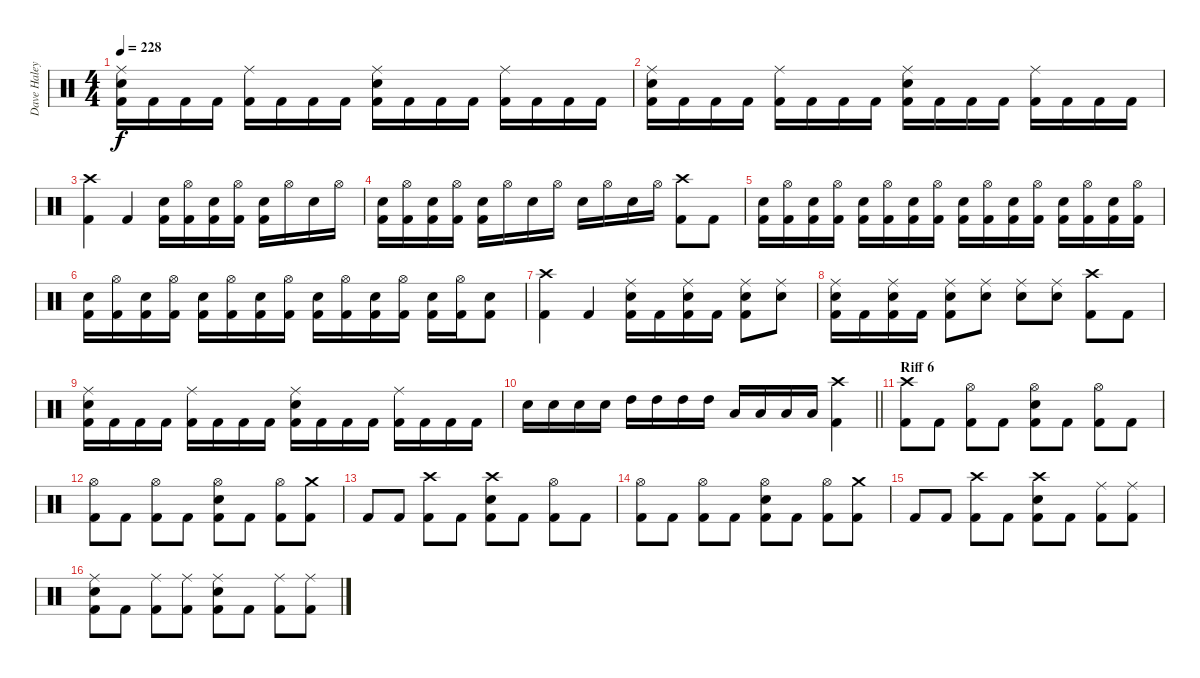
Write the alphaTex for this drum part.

\track ("Dave Haley" "Dave Haley") {instrument percussion}
\staff {score}
\articulation defaults
\ts (4 4)
\tempo 228
\clef neutral
\ks c
("Ride (middle)" "Snare (hit) 2" "Kick (hit) 2").16{dy f} "Kick (hit) 2".16 "Kick (hit) 2".16 "Kick (hit) 2".16 ("Ride (middle)" "Kick (hit) 2").16 "Kick (hit) 2".16 "Kick (hit) 2".16 "Kick (hit) 2".16 ("Ride (middle)" "Snare (hit) 2" "Kick (hit) 2").16 "Kick (hit) 2".16 "Kick (hit) 2".16 "Kick (hit) 2".16 ("Ride (middle)" "Kick (hit) 2").16 "Kick (hit) 2".16 "Kick (hit) 2".16 "Kick (hit) 2".16 |
("Ride (middle)" "Snare (hit) 2" "Kick (hit) 2").16 "Kick (hit) 2".16 "Kick (hit) 2".16 "Kick (hit) 2".16 ("Ride (middle)" "Kick (hit) 2").16 "Kick (hit) 2".16 "Kick (hit) 2".16 "Kick (hit) 2".16 ("Ride (middle)" "Snare (hit) 2" "Kick (hit) 2").16 "Kick (hit) 2".16 "Kick (hit) 2".16 "Kick (hit) 2".16 ("Ride (middle)" "Kick (hit) 2").16 "Kick (hit) 2".16 "Kick (hit) 2".16 "Kick (hit) 2".16 |
("Crash high (hit)" "Kick (hit) 2").4 "Kick (hit) 2".4 ("Snare (hit) 2" "Kick (hit) 2").16 ("Hi-Hat (open)" "Kick (hit) 2").16 ("Snare (hit) 2" "Kick (hit) 2").16 ("Hi-Hat (open)" "Kick (hit) 2").16 ("Snare (hit) 2" "Kick (hit) 2").16 "Hi-Hat (open)".16 "Snare (hit) 2".16 "Hi-Hat (open)".16 |
("Snare (hit) 2" "Kick (hit) 2").16 ("Hi-Hat (open)" "Kick (hit) 2").16 ("Snare (hit) 2" "Kick (hit) 2").16 ("Hi-Hat (open)" "Kick (hit) 2").16 ("Snare (hit) 2" "Kick (hit) 2").16 "Hi-Hat (open)".16 "Snare (hit) 2".16 "Hi-Hat (open)".16 "Snare (hit) 2".16 "Hi-Hat (open)".16 "Snare (hit) 2".16 "Hi-Hat (open)".16 ("Crash high (hit)" "Kick (hit) 2").8 "Kick (hit) 2".8 |
("Snare (hit) 2" "Kick (hit) 2").16 ("Hi-Hat (open)" "Kick (hit) 2").16 ("Snare (hit) 2" "Kick (hit) 2").16 ("Hi-Hat (open)" "Kick (hit) 2").16 ("Snare (hit) 2" "Kick (hit) 2").16 ("Hi-Hat (open)" "Kick (hit) 2").16 ("Snare (hit) 2" "Kick (hit) 2").16 ("Hi-Hat (open)" "Kick (hit) 2").16 ("Snare (hit) 2" "Kick (hit) 2").16 ("Hi-Hat (open)" "Kick (hit) 2").16 ("Snare (hit) 2" "Kick (hit) 2").16 ("Hi-Hat (open)" "Kick (hit) 2").16 ("Snare (hit) 2" "Kick (hit) 2").16 ("Hi-Hat (open)" "Kick (hit) 2").16 ("Snare (hit) 2" "Kick (hit) 2").16 ("Hi-Hat (open)" "Kick (hit) 2").16 |
("Snare (hit) 2" "Kick (hit) 2").16 ("Hi-Hat (open)" "Kick (hit) 2").16 ("Snare (hit) 2" "Kick (hit) 2").16 ("Hi-Hat (open)" "Kick (hit) 2").16 ("Snare (hit) 2" "Kick (hit) 2").16 ("Hi-Hat (open)" "Kick (hit) 2").16 ("Snare (hit) 2" "Kick (hit) 2").16 ("Hi-Hat (open)" "Kick (hit) 2").16 ("Snare (hit) 2" "Kick (hit) 2").16 ("Hi-Hat (open)" "Kick (hit) 2").16 ("Snare (hit) 2" "Kick (hit) 2").16 ("Hi-Hat (open)" "Kick (hit) 2").16 ("Snare (hit) 2" "Kick (hit) 2").16 ("Hi-Hat (open)" "Kick (hit) 2").16 ("Snare (hit) 2" "Kick (hit) 2").8 |
("Crash high (hit)" "Kick (hit) 2").4 "Kick (hit) 2".4 ("Ride (middle)" "Snare (hit) 2" "Kick (hit) 2").16 "Kick (hit) 2".16 ("Ride (middle)" "Snare (hit) 2" "Kick (hit) 2").16 "Kick (hit) 2".16 ("Ride (middle)" "Snare (hit) 2" "Kick (hit) 2").8 ("Ride (middle)" "Snare (hit) 2").8 |
("Ride (middle)" "Snare (hit) 2" "Kick (hit) 2").16 "Kick (hit) 2".16 ("Ride (middle)" "Snare (hit) 2" "Kick (hit) 2").16 "Kick (hit) 2".16 ("Ride (middle)" "Snare (hit) 2" "Kick (hit) 2").8 ("Ride (middle)" "Snare (hit) 2").8 ("Ride (middle)" "Snare (hit) 2").8 ("Ride (middle)" "Snare (hit) 2").8 ("Crash high (hit)" "Kick (hit) 2").8 "Kick (hit) 2".8 |
("Ride (middle)" "Snare (hit) 2" "Kick (hit) 2").16 "Kick (hit) 2".16 "Kick (hit) 2".16 "Kick (hit) 2".16 ("Ride (middle)" "Kick (hit) 2").16 "Kick (hit) 2".16 "Kick (hit) 2".16 "Kick (hit) 2".16 ("Ride (middle)" "Snare (hit) 2" "Kick (hit) 2").16 "Kick (hit) 2".16 "Kick (hit) 2".16 "Kick (hit) 2".16 ("Ride (middle)" "Kick (hit) 2").16 "Kick (hit) 2".16 "Kick (hit) 2".16 "Kick (hit) 2".16 |
\barLineRight lightlight "Snare (hit) 2".16 "Snare (hit) 2".16 "Snare (hit) 2".16 "Snare (hit) 2".16 "High Tom (hit)".16 "High Tom (hit)".16 "High Tom (hit)".16 "High Tom (hit)".16 "Low Tom (hit)".16 "Low Tom (hit)".16 "Low Tom (hit)".16 "Low Tom (hit)".16
("Crash high (hit)" "Kick (hit) 2").4 |
\section ("" "Riff 6")
("Crash high (hit)" "Kick (hit) 2").8 "Kick (hit) 2".8 ("Hi-Hat (open)" "Kick (hit) 2").8 "Kick (hit) 2".8 ("Hi-Hat (open)" "Snare (hit) 2" "Kick (hit) 2").8 "Kick (hit) 2".8 ("Hi-Hat (open)" "Kick (hit) 2").8 "Kick (hit) 2".8 |
("Hi-Hat (open)" "Kick (hit) 2").8 "Kick (hit) 2".8 ("Hi-Hat (open)" "Kick (hit) 2").8 "Kick (hit) 2".8 ("Hi-Hat (open)" "Snare (hit) 2" "Kick (hit) 2").8 "Kick (hit) 2".8 ("Hi-Hat (open)" "Kick (hit) 2").8 ("Crash medium (hit)" "Kick (hit) 2").8 |
"Kick (hit) 2".8 "Kick (hit) 2".8 ("Crash high (hit)" "Kick (hit) 2").8 "Kick (hit) 2".8 ("Crash high (hit)" "Snare (hit) 2" "Kick (hit) 2").8 "Kick (hit) 2".8 ("Hi-Hat (open)" "Kick (hit) 2").8 "Kick (hit) 2".8 |
("Hi-Hat (open)" "Kick (hit) 2").8 "Kick (hit) 2".8 ("Hi-Hat (open)" "Kick (hit) 2").8 "Kick (hit) 2".8 ("Hi-Hat (open)" "Snare (hit) 2" "Kick (hit) 2").8 "Kick (hit) 2".8 ("Hi-Hat (open)" "Kick (hit) 2").8 ("Crash medium (hit)" "Kick (hit) 2").8 |
"Kick (hit) 2".8 "Kick (hit) 2".8 ("Crash high (hit)" "Kick (hit) 2").8 "Kick (hit) 2".8 ("Crash high (hit)" "Snare (hit) 2" "Kick (hit) 2").8 "Kick (hit) 2".8 ("Ride (middle)" "Kick (hit) 2").8 ("Ride (middle)" "Kick (hit) 2").8 |
("Ride (middle)" "Snare (hit) 2" "Kick (hit) 2").8 "Kick (hit) 2".8 ("Ride (middle)" "Kick (hit) 2").8 ("Ride (middle)" "Kick (hit) 2").8 ("Ride (middle)" "Snare (hit) 2" "Kick (hit) 2").8 "Kick (hit) 2".8 ("Ride (middle)" "Kick (hit) 2").8 ("Ride (middle)" "Kick (hit) 2").8
